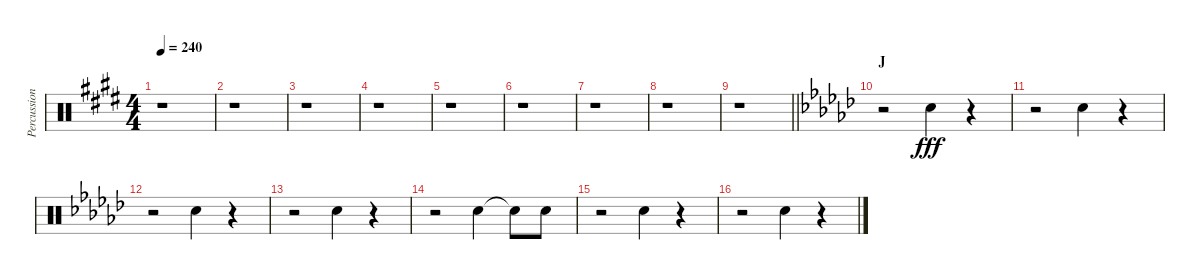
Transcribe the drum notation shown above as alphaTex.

\track ("Percussion" "Percussion") {instrument percussion}
\staff {score}
\articulation defaults
\ts (4 4)
\tempo 240
\clef neutral
\ks e
r.1{dy fff} |
r.1 |
r.1 |
r.1 |
r.1 |
r.1 |
r.1 |
r.1 |
\barLineRight lightlight
r.1 |
\section ("" "J")
\ks gb
r.2 "Hand Clap (hit)".4 r.4 |
r.2 "Hand Clap (hit)".4 r.4 |
r.2 "Hand Clap (hit)".4 r.4 |
r.2 "Hand Clap (hit)".4 r.4 |
r.2 "Hand Clap (hit)".4 "Snare (hit)"{t}.8 "Hand Clap (hit)".8 |
r.2 "Hand Clap (hit)".4 r.4 |
r.2 "Hand Clap (hit)".4 r.4
